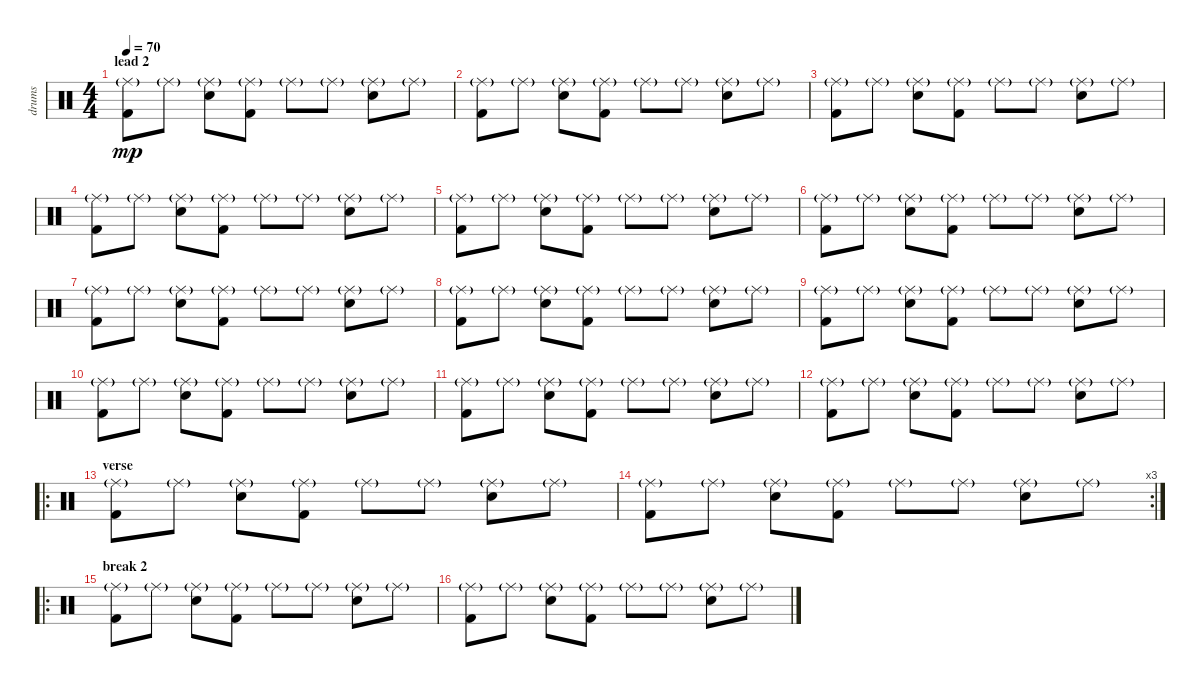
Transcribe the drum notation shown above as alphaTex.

\track ("drums" "drums") {instrument percussion}
\staff {score}
\articulation defaults
\ts (4 4)
\section ("" "lead 2")
\tempo 70
\clef neutral
\ks c
("Kick (hit) 2" "Ride (middle)"{g}).8{dy mp} "Ride (middle)"{g}.8 ("Snare (hit) 2" "Ride (middle)"{g}).8 ("Kick (hit) 2" "Ride (middle)"{g}).8 "Ride (middle)"{g}.8 "Ride (middle)"{g}.8 ("Snare (hit) 2" "Ride (middle)"{g}).8 "Ride (middle)"{g}.8 |
("Kick (hit) 2" "Ride (middle)"{g}).8 "Ride (middle)"{g}.8 ("Snare (hit) 2" "Ride (middle)"{g}).8 ("Kick (hit) 2" "Ride (middle)"{g}).8 "Ride (middle)"{g}.8 "Ride (middle)"{g}.8 ("Snare (hit) 2" "Ride (middle)"{g}).8 "Ride (middle)"{g}.8 |
("Kick (hit) 2" "Ride (middle)"{g}).8 "Ride (middle)"{g}.8 ("Snare (hit) 2" "Ride (middle)"{g}).8 ("Kick (hit) 2" "Ride (middle)"{g}).8 "Ride (middle)"{g}.8 "Ride (middle)"{g}.8 ("Snare (hit) 2" "Ride (middle)"{g}).8 "Ride (middle)"{g}.8 |
("Kick (hit) 2" "Ride (middle)"{g}).8 "Ride (middle)"{g}.8 ("Snare (hit) 2" "Ride (middle)"{g}).8 ("Kick (hit) 2" "Ride (middle)"{g}).8 "Ride (middle)"{g}.8 "Ride (middle)"{g}.8 ("Snare (hit) 2" "Ride (middle)"{g}).8 "Ride (middle)"{g}.8 |
("Kick (hit) 2" "Ride (middle)"{g}).8 "Ride (middle)"{g}.8 ("Snare (hit) 2" "Ride (middle)"{g}).8 ("Kick (hit) 2" "Ride (middle)"{g}).8 "Ride (middle)"{g}.8 "Ride (middle)"{g}.8 ("Snare (hit) 2" "Ride (middle)"{g}).8 "Ride (middle)"{g}.8 |
("Kick (hit) 2" "Ride (middle)"{g}).8 "Ride (middle)"{g}.8 ("Snare (hit) 2" "Ride (middle)"{g}).8 ("Kick (hit) 2" "Ride (middle)"{g}).8 "Ride (middle)"{g}.8 "Ride (middle)"{g}.8 ("Snare (hit) 2" "Ride (middle)"{g}).8 "Ride (middle)"{g}.8 |
("Kick (hit) 2" "Ride (middle)"{g}).8 "Ride (middle)"{g}.8 ("Snare (hit) 2" "Ride (middle)"{g}).8 ("Kick (hit) 2" "Ride (middle)"{g}).8 "Ride (middle)"{g}.8 "Ride (middle)"{g}.8 ("Snare (hit) 2" "Ride (middle)"{g}).8 "Ride (middle)"{g}.8 |
("Kick (hit) 2" "Ride (middle)"{g}).8 "Ride (middle)"{g}.8 ("Snare (hit) 2" "Ride (middle)"{g}).8 ("Kick (hit) 2" "Ride (middle)"{g}).8 "Ride (middle)"{g}.8 "Ride (middle)"{g}.8 ("Snare (hit) 2" "Ride (middle)"{g}).8 "Ride (middle)"{g}.8 |
("Kick (hit) 2" "Ride (middle)"{g}).8 "Ride (middle)"{g}.8 ("Snare (hit) 2" "Ride (middle)"{g}).8 ("Kick (hit) 2" "Ride (middle)"{g}).8 "Ride (middle)"{g}.8 "Ride (middle)"{g}.8 ("Snare (hit) 2" "Ride (middle)"{g}).8 "Ride (middle)"{g}.8 |
("Kick (hit) 2" "Ride (middle)"{g}).8 "Ride (middle)"{g}.8 ("Snare (hit) 2" "Ride (middle)"{g}).8 ("Kick (hit) 2" "Ride (middle)"{g}).8 "Ride (middle)"{g}.8 "Ride (middle)"{g}.8 ("Snare (hit) 2" "Ride (middle)"{g}).8 "Ride (middle)"{g}.8 |
("Kick (hit) 2" "Ride (middle)"{g}).8 "Ride (middle)"{g}.8 ("Snare (hit) 2" "Ride (middle)"{g}).8 ("Kick (hit) 2" "Ride (middle)"{g}).8 "Ride (middle)"{g}.8 "Ride (middle)"{g}.8 ("Snare (hit) 2" "Ride (middle)"{g}).8 "Ride (middle)"{g}.8 |
("Kick (hit) 2" "Ride (middle)"{g}).8 "Ride (middle)"{g}.8 ("Snare (hit) 2" "Ride (middle)"{g}).8 ("Kick (hit) 2" "Ride (middle)"{g}).8 "Ride (middle)"{g}.8 "Ride (middle)"{g}.8 ("Snare (hit) 2" "Ride (middle)"{g}).8 "Ride (middle)"{g}.8 |
\ro
\section ("" "verse ")
("Kick (hit) 2" "Ride (middle)"{g}).8 "Ride (middle)"{g}.8 ("Snare (hit) 2" "Ride (middle)"{g}).8 ("Kick (hit) 2" "Ride (middle)"{g}).8 "Ride (middle)"{g}.8 "Ride (middle)"{g}.8 ("Snare (hit) 2" "Ride (middle)"{g}).8 "Ride (middle)"{g}.8 |
\rc 3
("Kick (hit) 2" "Ride (middle)"{g}).8 "Ride (middle)"{g}.8 ("Snare (hit) 2" "Ride (middle)"{g}).8 ("Kick (hit) 2" "Ride (middle)"{g}).8 "Ride (middle)"{g}.8 "Ride (middle)"{g}.8 ("Snare (hit) 2" "Ride (middle)"{g}).8 "Ride (middle)"{g}.8 |
\ro
\section ("" "break 2")
("Kick (hit) 2" "Ride (middle)"{g}).8 "Ride (middle)"{g}.8 ("Snare (hit) 2" "Ride (middle)"{g}).8 ("Kick (hit) 2" "Ride (middle)"{g}).8 "Ride (middle)"{g}.8 "Ride (middle)"{g}.8 ("Snare (hit) 2" "Ride (middle)"{g}).8 "Ride (middle)"{g}.8 |
("Kick (hit) 2" "Ride (middle)"{g}).8 "Ride (middle)"{g}.8 ("Snare (hit) 2" "Ride (middle)"{g}).8 ("Kick (hit) 2" "Ride (middle)"{g}).8 "Ride (middle)"{g}.8 "Ride (middle)"{g}.8 ("Snare (hit) 2" "Ride (middle)"{g}).8 "Ride (middle)"{g}.8
